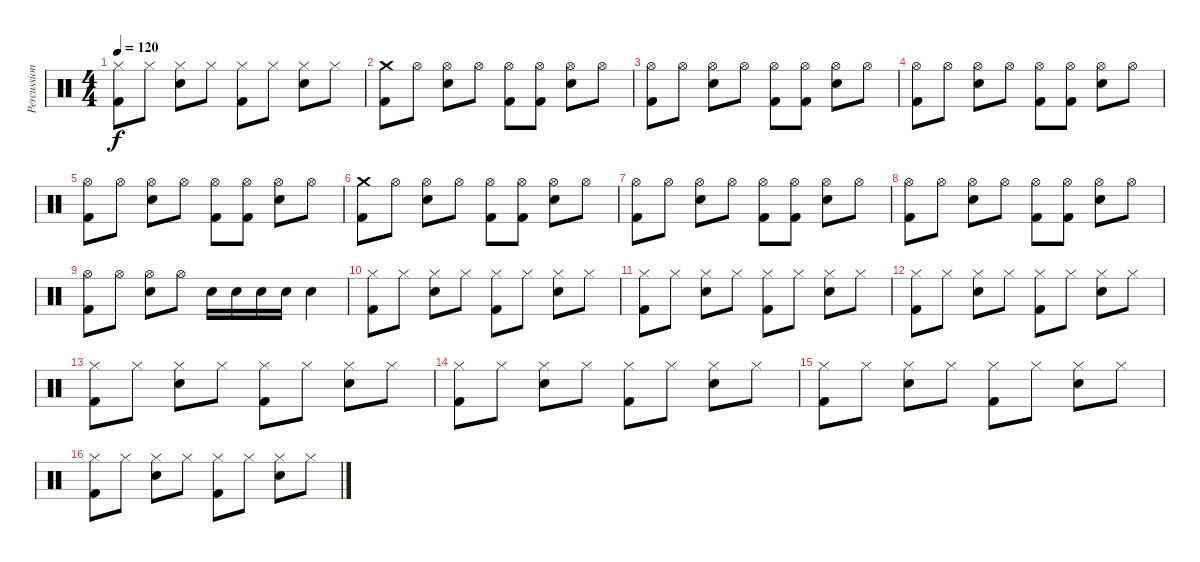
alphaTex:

\track ("Percussioni" "Percussion") {instrument percussion}
\staff {score}
\articulation defaults
\ts (4 4)
\tempo 120
\clef neutral
\ks c
("Hi-Hat (closed)" "Kick (hit) 2").8{dy f} "Hi-Hat (closed)".8 ("Hi-Hat (closed)" "Snare (hit) 2").8 "Hi-Hat (closed)".8 ("Hi-Hat (closed)" "Kick (hit) 2").8 "Hi-Hat (closed)".8 ("Hi-Hat (closed)" "Snare (hit) 2").8 "Hi-Hat (closed)".8 |
("Crash medium (hit)" "Kick (hit) 2").8 "Hi-Hat (open)".8 ("Hi-Hat (open)" "Snare (hit) 2").8 "Hi-Hat (open)".8 ("Hi-Hat (open)" "Kick (hit) 2").8 ("Hi-Hat (open)" "Kick (hit) 2").8 ("Hi-Hat (open)" "Snare (hit) 2").8 "Hi-Hat (open)".8 |
("Hi-Hat (open)" "Kick (hit) 2").8 "Hi-Hat (open)".8 ("Hi-Hat (open)" "Snare (hit) 2").8 "Hi-Hat (open)".8 ("Hi-Hat (open)" "Kick (hit) 2").8 ("Hi-Hat (open)" "Kick (hit) 2").8 ("Hi-Hat (open)" "Snare (hit) 2").8 "Hi-Hat (open)".8 |
("Hi-Hat (open)" "Kick (hit) 2").8 "Hi-Hat (open)".8 ("Hi-Hat (open)" "Snare (hit) 2").8 "Hi-Hat (open)".8 ("Hi-Hat (open)" "Kick (hit) 2").8 ("Hi-Hat (open)" "Kick (hit) 2").8 ("Hi-Hat (open)" "Snare (hit) 2").8 "Hi-Hat (open)".8 |
("Hi-Hat (open)" "Kick (hit) 2").8 "Hi-Hat (open)".8 ("Hi-Hat (open)" "Snare (hit) 2").8 "Hi-Hat (open)".8 ("Hi-Hat (open)" "Kick (hit) 2").8 ("Hi-Hat (open)" "Kick (hit) 2").8 ("Hi-Hat (open)" "Snare (hit) 2").8 "Hi-Hat (open)".8 |
("Crash medium (hit)" "Kick (hit) 2").8 "Hi-Hat (open)".8 ("Hi-Hat (open)" "Snare (hit) 2").8 "Hi-Hat (open)".8 ("Hi-Hat (open)" "Kick (hit) 2").8 ("Hi-Hat (open)" "Kick (hit) 2").8 ("Hi-Hat (open)" "Snare (hit) 2").8 "Hi-Hat (open)".8 |
("Hi-Hat (open)" "Kick (hit) 2").8 "Hi-Hat (open)".8 ("Hi-Hat (open)" "Snare (hit) 2").8 "Hi-Hat (open)".8 ("Hi-Hat (open)" "Kick (hit) 2").8 ("Hi-Hat (open)" "Kick (hit) 2").8 ("Hi-Hat (open)" "Snare (hit) 2").8 "Hi-Hat (open)".8 |
("Hi-Hat (open)" "Kick (hit) 2").8 "Hi-Hat (open)".8 ("Hi-Hat (open)" "Snare (hit) 2").8 "Hi-Hat (open)".8 ("Hi-Hat (open)" "Kick (hit) 2").8 ("Hi-Hat (open)" "Kick (hit) 2").8 ("Hi-Hat (open)" "Snare (hit) 2").8 "Hi-Hat (open)".8 |
("Hi-Hat (open)" "Kick (hit) 2").8 "Hi-Hat (open)".8 ("Hi-Hat (open)" "Snare (hit) 2").8 "Hi-Hat (open)".8 "Snare (hit) 2".16 "Snare (hit) 2".16 "Snare (hit) 2".16 "Snare (hit) 2".16 "Snare (hit) 2".4 |
("Hi-Hat (closed)" "Kick (hit) 2").8 "Hi-Hat (closed)".8 ("Hi-Hat (closed)" "Snare (hit) 2").8 "Hi-Hat (closed)".8 ("Hi-Hat (closed)" "Kick (hit) 2").8 "Hi-Hat (closed)".8 ("Hi-Hat (closed)" "Snare (hit) 2").8 "Hi-Hat (closed)".8 |
("Hi-Hat (closed)" "Kick (hit) 2").8 "Hi-Hat (closed)".8 ("Hi-Hat (closed)" "Snare (hit) 2").8 "Hi-Hat (closed)".8 ("Hi-Hat (closed)" "Kick (hit) 2").8 "Hi-Hat (closed)".8 ("Hi-Hat (closed)" "Snare (hit) 2").8 "Hi-Hat (closed)".8 |
("Hi-Hat (closed)" "Kick (hit) 2").8 "Hi-Hat (closed)".8 ("Hi-Hat (closed)" "Snare (hit) 2").8 "Hi-Hat (closed)".8 ("Hi-Hat (closed)" "Kick (hit) 2").8 "Hi-Hat (closed)".8 ("Hi-Hat (closed)" "Snare (hit) 2").8 "Hi-Hat (closed)".8 |
("Hi-Hat (closed)" "Kick (hit) 2").8 "Hi-Hat (closed)".8 ("Hi-Hat (closed)" "Snare (hit) 2").8 "Hi-Hat (closed)".8 ("Hi-Hat (closed)" "Kick (hit) 2").8 "Hi-Hat (closed)".8 ("Hi-Hat (closed)" "Snare (hit) 2").8 "Hi-Hat (closed)".8 |
("Hi-Hat (closed)" "Kick (hit) 2").8 "Hi-Hat (closed)".8 ("Hi-Hat (closed)" "Snare (hit) 2").8 "Hi-Hat (closed)".8 ("Hi-Hat (closed)" "Kick (hit) 2").8 "Hi-Hat (closed)".8 ("Hi-Hat (closed)" "Snare (hit) 2").8 "Hi-Hat (closed)".8 |
("Hi-Hat (closed)" "Kick (hit) 2").8 "Hi-Hat (closed)".8 ("Hi-Hat (closed)" "Snare (hit) 2").8 "Hi-Hat (closed)".8 ("Hi-Hat (closed)" "Kick (hit) 2").8 "Hi-Hat (closed)".8 ("Hi-Hat (closed)" "Snare (hit) 2").8 "Hi-Hat (closed)".8 |
("Hi-Hat (closed)" "Kick (hit) 2").8 "Hi-Hat (closed)".8 ("Hi-Hat (closed)" "Snare (hit) 2").8 "Hi-Hat (closed)".8 ("Hi-Hat (closed)" "Kick (hit) 2").8 "Hi-Hat (closed)".8 ("Hi-Hat (closed)" "Snare (hit) 2").8 "Hi-Hat (closed)".8
